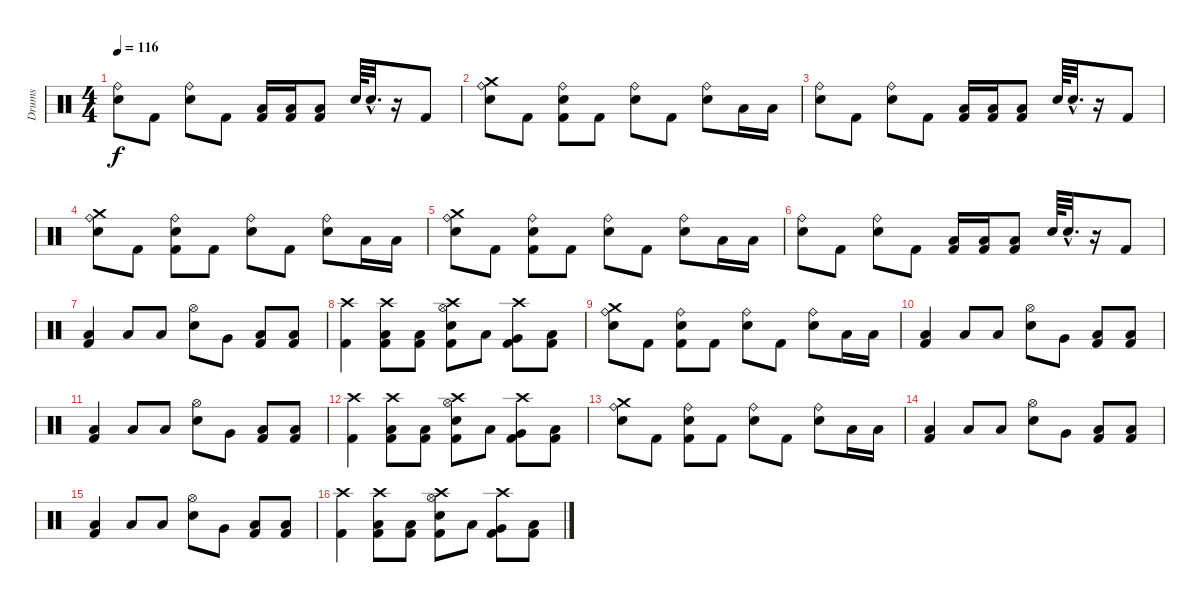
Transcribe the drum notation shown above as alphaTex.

\track ("Drums" "Drums") {instrument percussion}
\staff {score}
\articulation defaults
\ts (4 4)
\tempo 116
\clef neutral
\ks c
("Ride (bell)" "Snare (hit) 2").8{dy f} "Kick (hit) 2".8 ("Ride (bell)" "Snare (hit) 2").8 "Kick (hit) 2".8 ("Low Floor Tom (hit)" "Kick (hit) 2").16 ("Low Floor Tom (hit)" "Kick (hit) 2").16 ("Low Floor Tom (hit)" "Kick (hit) 2").8 "Snare (hit) 2".64 "Electric Snare (hit)"{hac}.32{d} r.16 "Kick (hit) 2".8 |
("Crash medium (hit)" "Ride (bell)" "Snare (hit) 2").8 "Kick (hit) 2".8 ("Ride (bell)" "Snare (hit) 2" "Kick (hit) 2").8 "Kick (hit) 2".8 ("Ride (bell)" "Snare (hit) 2").8 "Kick (hit) 2".8 ("Ride (bell)" "Snare (hit) 2").8 "Low Floor Tom (hit)".16 "Low Floor Tom (hit)".16 |
("Ride (bell)" "Snare (hit) 2").8 "Kick (hit) 2".8 ("Ride (bell)" "Snare (hit) 2").8 "Kick (hit) 2".8 ("Low Floor Tom (hit)" "Kick (hit) 2").16 ("Low Floor Tom (hit)" "Kick (hit) 2").16 ("Low Floor Tom (hit)" "Kick (hit) 2").8 "Snare (hit) 2".64 "Electric Snare (hit)"{hac}.32{d} r.16 "Kick (hit) 2".8 |
("Crash medium (hit)" "Ride (bell)" "Snare (hit) 2").8 "Kick (hit) 2".8 ("Ride (bell)" "Snare (hit) 2" "Kick (hit) 2").8 "Kick (hit) 2".8 ("Ride (bell)" "Snare (hit) 2").8 "Kick (hit) 2".8 ("Ride (bell)" "Snare (hit) 2").8 "Low Floor Tom (hit)".16 "Low Floor Tom (hit)".16 |
("Crash medium (hit)" "Ride (bell)" "Snare (hit) 2").8 "Kick (hit) 2".8 ("Ride (bell)" "Snare (hit) 2" "Kick (hit) 2").8 "Kick (hit) 2".8 ("Ride (bell)" "Snare (hit) 2").8 "Kick (hit) 2".8 ("Ride (bell)" "Snare (hit) 2").8 "Low Floor Tom (hit)".16 "Low Floor Tom (hit)".16 |
("Ride (bell)" "Snare (hit) 2").8 "Kick (hit) 2".8 ("Ride (bell)" "Snare (hit) 2").8 "Kick (hit) 2".8 ("Low Floor Tom (hit)" "Kick (hit) 2").16 ("Low Floor Tom (hit)" "Kick (hit) 2").16 ("Low Floor Tom (hit)" "Kick (hit) 2").8 "Snare (hit) 2".64 "Electric Snare (hit)"{hac}.32{d} r.16 "Kick (hit) 2".8 |
("Low Floor Tom (hit)" "Kick (hit) 2").4 "Low Floor Tom (hit)".8 "Low Floor Tom (hit)".8 ("Hi-Hat (open)" "Electric Snare (hit)").8 "Very Low Tom (hit)".8 ("Low Floor Tom (hit)" "Kick (hit) 2").8 ("Low Floor Tom (hit)" "Kick (hit) 2").8 |
("Crash high (hit)" "Kick (hit) 2").4 ("Crash high (hit)" "Low Floor Tom (hit)" "Kick (hit) 2").8 ("Low Floor Tom (hit)" "Kick (hit) 2").8 ("Crash high (hit)" "Hi-Hat (open)" "Electric Snare (hit)" "Kick (hit) 2").8 "Low Floor Tom (hit)".8 ("Crash high (hit)" "Very Low Tom (hit)" "Kick (hit) 2").8 ("Low Floor Tom (hit)" "Kick (hit) 2").8 |
("Crash medium (hit)" "Ride (bell)" "Snare (hit) 2").8 "Kick (hit) 2".8 ("Ride (bell)" "Snare (hit) 2" "Kick (hit) 2").8 "Kick (hit) 2".8 ("Ride (bell)" "Snare (hit) 2").8 "Kick (hit) 2".8 ("Ride (bell)" "Snare (hit) 2").8 "Low Floor Tom (hit)".16 "Low Floor Tom (hit)".16 |
("Low Floor Tom (hit)" "Kick (hit) 2").4 "Low Floor Tom (hit)".8 "Low Floor Tom (hit)".8 ("Hi-Hat (open)" "Electric Snare (hit)").8 "Very Low Tom (hit)".8 ("Low Floor Tom (hit)" "Kick (hit) 2").8 ("Low Floor Tom (hit)" "Kick (hit) 2").8 |
("Low Floor Tom (hit)" "Kick (hit) 2").4 "Low Floor Tom (hit)".8 "Low Floor Tom (hit)".8 ("Hi-Hat (open)" "Electric Snare (hit)").8 "Very Low Tom (hit)".8 ("Low Floor Tom (hit)" "Kick (hit) 2").8 ("Low Floor Tom (hit)" "Kick (hit) 2").8 |
("Crash high (hit)" "Kick (hit) 2").4 ("Crash high (hit)" "Low Floor Tom (hit)" "Kick (hit) 2").8 ("Low Floor Tom (hit)" "Kick (hit) 2").8 ("Crash high (hit)" "Hi-Hat (open)" "Electric Snare (hit)" "Kick (hit) 2").8 "Low Floor Tom (hit)".8 ("Crash high (hit)" "Very Low Tom (hit)" "Kick (hit) 2").8 ("Low Floor Tom (hit)" "Kick (hit) 2").8 |
("Crash medium (hit)" "Ride (bell)" "Snare (hit) 2").8 "Kick (hit) 2".8 ("Ride (bell)" "Snare (hit) 2" "Kick (hit) 2").8 "Kick (hit) 2".8 ("Ride (bell)" "Snare (hit) 2").8 "Kick (hit) 2".8 ("Ride (bell)" "Snare (hit) 2").8 "Low Floor Tom (hit)".16 "Low Floor Tom (hit)".16 |
("Low Floor Tom (hit)" "Kick (hit) 2").4 "Low Floor Tom (hit)".8 "Low Floor Tom (hit)".8 ("Hi-Hat (open)" "Electric Snare (hit)").8 "Very Low Tom (hit)".8 ("Low Floor Tom (hit)" "Kick (hit) 2").8 ("Low Floor Tom (hit)" "Kick (hit) 2").8 |
("Low Floor Tom (hit)" "Kick (hit) 2").4 "Low Floor Tom (hit)".8 "Low Floor Tom (hit)".8 ("Hi-Hat (open)" "Electric Snare (hit)").8 "Very Low Tom (hit)".8 ("Low Floor Tom (hit)" "Kick (hit) 2").8 ("Low Floor Tom (hit)" "Kick (hit) 2").8 |
("Crash high (hit)" "Kick (hit) 2").4 ("Crash high (hit)" "Low Floor Tom (hit)" "Kick (hit) 2").8 ("Low Floor Tom (hit)" "Kick (hit) 2").8 ("Crash high (hit)" "Hi-Hat (open)" "Electric Snare (hit)" "Kick (hit) 2").8 "Low Floor Tom (hit)".8 ("Crash high (hit)" "Very Low Tom (hit)" "Kick (hit) 2").8 ("Low Floor Tom (hit)" "Kick (hit) 2").8
